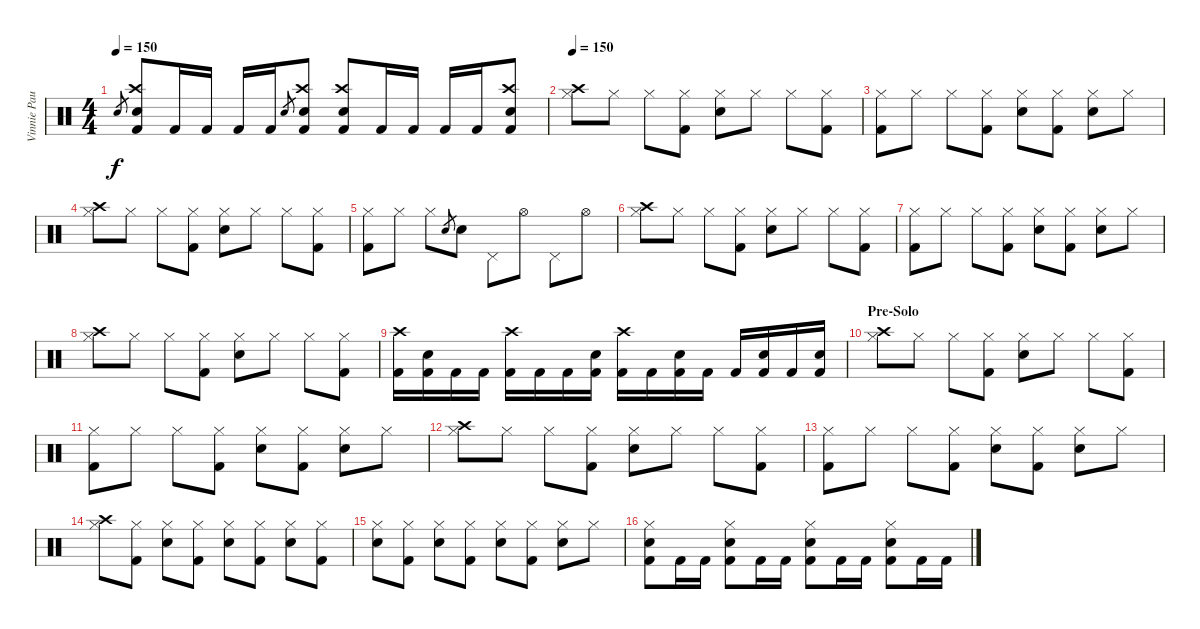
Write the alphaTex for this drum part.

\track ("Vinnie Paul" "Vinnie Pau") {instrument percussion}
\staff {score}
\articulation defaults
\ts (4 4)
\tempo 150
\clef neutral
\ks c "Snare (hit) 2".8{gr dy f}
("Crash high (hit)" "Snare (hit) 2" "Kick (hit) 2").8 "Kick (hit) 2".16 "Kick (hit) 2".16 "Kick (hit) 2".16 "Kick (hit) 2".16 "Snare (hit) 2".8{gr} ("Crash high (hit)" "Snare (hit) 2" "Kick (hit) 2").8 ("Crash high (hit)" "Snare (hit) 2" "Kick (hit) 2").8 "Kick (hit) 2".16 "Kick (hit) 2".16 "Kick (hit) 2".16 "Kick (hit) 2".16 ("Crash high (hit)" "Snare (hit) 2" "Kick (hit) 2").8 |
\tempo 150
("Crash high (hit)" "Hi-Hat (closed)").8 "Hi-Hat (closed)".8 "Hi-Hat (closed)".8 ("Hi-Hat (closed)" "Kick (hit) 2").8 ("Snare (hit) 2" "Hi-Hat (closed)").8 "Hi-Hat (closed)".8 "Hi-Hat (closed)".8 ("Hi-Hat (closed)" "Kick (hit) 2").8 |
("Hi-Hat (closed)" "Kick (hit) 2").8 "Hi-Hat (closed)".8 "Hi-Hat (closed)".8 ("Hi-Hat (closed)" "Kick (hit) 2").8 ("Snare (hit) 2" "Hi-Hat (closed)").8 ("Hi-Hat (closed)" "Kick (hit) 2").8 ("Snare (hit) 2" "Hi-Hat (closed)").8 "Hi-Hat (closed)".8 |
("Crash high (hit)" "Hi-Hat (closed)").8 "Hi-Hat (closed)".8 "Hi-Hat (closed)".8 ("Hi-Hat (closed)" "Kick (hit) 2").8 ("Snare (hit) 2" "Hi-Hat (closed)").8 "Hi-Hat (closed)".8 "Hi-Hat (closed)".8 ("Hi-Hat (closed)" "Kick (hit) 2").8 |
("Hi-Hat (closed)" "Kick (hit) 2").8 "Hi-Hat (closed)".8 "Hi-Hat (closed)".8 "Snare (hit) 2".8{gr} "Snare (hit) 2".8 "Pedal Hi-Hat (hit)".8 "Hi-Hat (open)".8 "Pedal Hi-Hat (hit)".8 "Hi-Hat (open)".8 |
("Crash high (hit)" "Hi-Hat (closed)").8 "Hi-Hat (closed)".8 "Hi-Hat (closed)".8 ("Hi-Hat (closed)" "Kick (hit) 2").8 ("Snare (hit) 2" "Hi-Hat (closed)").8 "Hi-Hat (closed)".8 "Hi-Hat (closed)".8 ("Hi-Hat (closed)" "Kick (hit) 2").8 |
("Hi-Hat (closed)" "Kick (hit) 2").8 "Hi-Hat (closed)".8 "Hi-Hat (closed)".8 ("Hi-Hat (closed)" "Kick (hit) 2").8 ("Snare (hit) 2" "Hi-Hat (closed)").8 ("Hi-Hat (closed)" "Kick (hit) 2").8 ("Snare (hit) 2" "Hi-Hat (closed)").8 "Hi-Hat (closed)".8 |
("Crash high (hit)" "Hi-Hat (closed)").8 "Hi-Hat (closed)".8 "Hi-Hat (closed)".8 ("Hi-Hat (closed)" "Kick (hit) 2").8 ("Snare (hit) 2" "Hi-Hat (closed)").8 "Hi-Hat (closed)".8 "Hi-Hat (closed)".8 ("Hi-Hat (closed)" "Kick (hit) 2").8 |
("Crash high (hit)" "Kick (hit) 2").16 ("Snare (hit) 2" "Kick (hit) 2").16 "Kick (hit) 2".16 "Kick (hit) 2".16 ("Crash high (hit)" "Kick (hit) 2").16 "Kick (hit) 2".16 "Kick (hit) 2".16 ("Snare (hit) 2" "Kick (hit) 2").16 ("Crash high (hit)" "Kick (hit) 2").16 "Kick (hit) 2".16 ("Snare (hit) 2" "Kick (hit) 2").16 "Kick (hit) 2".16 "Kick (hit) 2".16 ("Snare (hit) 2" "Kick (hit) 2").16 "Kick (hit) 2".16 ("Snare (hit) 2" "Kick (hit) 2").16 |
\section ("" "Pre-Solo")
("Crash high (hit)" "Hi-Hat (closed)").8 "Hi-Hat (closed)".8 "Hi-Hat (closed)".8 ("Hi-Hat (closed)" "Kick (hit) 2").8 ("Snare (hit) 2" "Hi-Hat (closed)").8 "Hi-Hat (closed)".8 "Hi-Hat (closed)".8 ("Hi-Hat (closed)" "Kick (hit) 2").8 |
("Hi-Hat (closed)" "Kick (hit) 2").8 "Hi-Hat (closed)".8 "Hi-Hat (closed)".8 ("Hi-Hat (closed)" "Kick (hit) 2").8 ("Snare (hit) 2" "Hi-Hat (closed)").8 ("Hi-Hat (closed)" "Kick (hit) 2").8 ("Snare (hit) 2" "Hi-Hat (closed)").8 "Hi-Hat (closed)".8 |
("Crash high (hit)" "Hi-Hat (closed)").8 "Hi-Hat (closed)".8 "Hi-Hat (closed)".8 ("Hi-Hat (closed)" "Kick (hit) 2").8 ("Snare (hit) 2" "Hi-Hat (closed)").8 "Hi-Hat (closed)".8 "Hi-Hat (closed)".8 ("Hi-Hat (closed)" "Kick (hit) 2").8 |
("Hi-Hat (closed)" "Kick (hit) 2").8 "Hi-Hat (closed)".8 "Hi-Hat (closed)".8 ("Hi-Hat (closed)" "Kick (hit) 2").8 ("Snare (hit) 2" "Hi-Hat (closed)").8 ("Hi-Hat (closed)" "Kick (hit) 2").8 ("Snare (hit) 2" "Hi-Hat (closed)").8 "Hi-Hat (closed)".8 |
("Crash high (hit)" "Hi-Hat (closed)").8 ("Hi-Hat (closed)" "Kick (hit) 2").8 ("Snare (hit) 2" "Hi-Hat (closed)").8 ("Hi-Hat (closed)" "Kick (hit) 2").8 ("Snare (hit) 2" "Hi-Hat (closed)").8 ("Hi-Hat (closed)" "Kick (hit) 2").8 ("Snare (hit) 2" "Hi-Hat (closed)").8 ("Hi-Hat (closed)" "Kick (hit) 2").8 |
("Snare (hit) 2" "Hi-Hat (closed)").8 ("Hi-Hat (closed)" "Kick (hit) 2").8 ("Snare (hit) 2" "Hi-Hat (closed)").8 ("Hi-Hat (closed)" "Kick (hit) 2").8 ("Snare (hit) 2" "Hi-Hat (closed)").8 ("Hi-Hat (closed)" "Kick (hit) 2").8 ("Snare (hit) 2" "Hi-Hat (closed)").8 "Hi-Hat (closed)".8 |
("Snare (hit) 2" "Hi-Hat (closed)" "Kick (hit) 2").8 "Kick (hit) 2".16 "Kick (hit) 2".16 ("Snare (hit) 2" "Hi-Hat (closed)" "Kick (hit) 2").8 "Kick (hit) 2".16 "Kick (hit) 2".16 ("Snare (hit) 2" "Hi-Hat (closed)" "Kick (hit) 2").8 "Kick (hit) 2".16 "Kick (hit) 2".16 ("Snare (hit) 2" "Hi-Hat (closed)" "Kick (hit) 2").8 "Kick (hit) 2".16 "Kick (hit) 2".16
